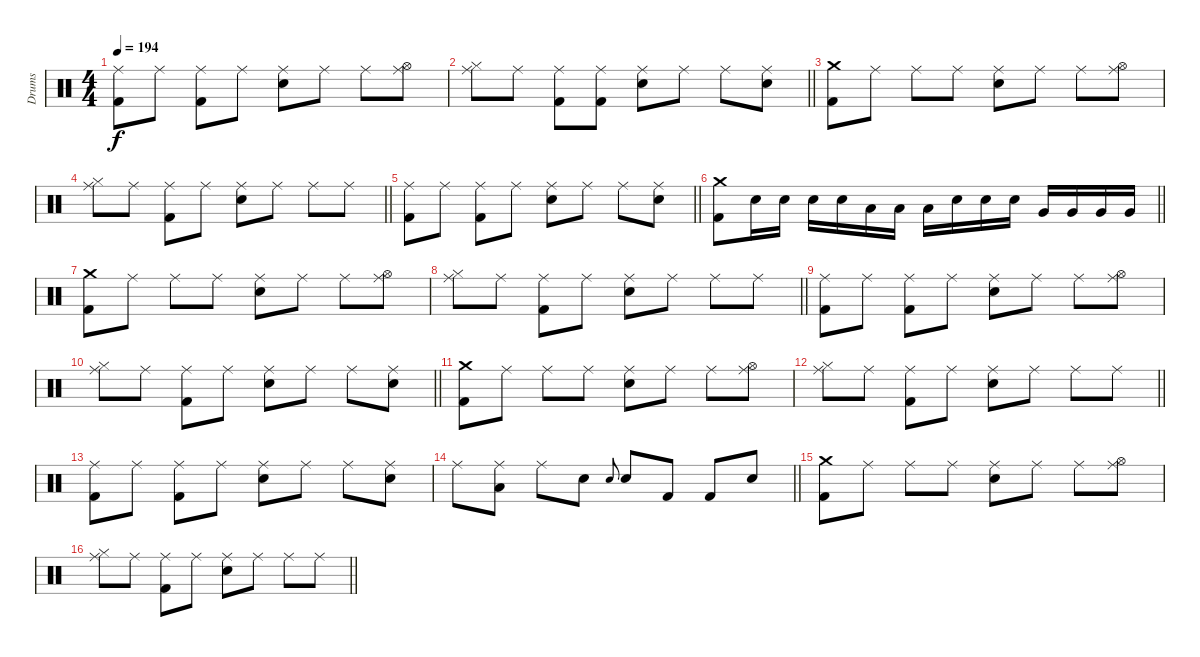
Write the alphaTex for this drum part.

\track ("Drums" "Drums") {instrument percussion}
\staff {score}
\articulation defaults
\ts (4 4)
\tempo 194
\clef neutral
\ks c
("Ride (middle)" "Kick (hit) 2").8{dy f} "Ride (middle)".8 ("Ride (middle)" "Kick (hit) 2").8 "Ride (middle)".8 ("Ride (middle)" "Snare (hit) 2").8 "Ride (middle)".8 "Ride (middle)".8 ("Ride (middle)" "Hi-Hat (open)").8 |
\barLineRight lightlight
("Ride (middle)" "Hi-Hat (closed)").8 "Ride (middle)".8 ("Ride (middle)" "Kick (hit) 2").8 ("Ride (middle)" "Kick (hit) 2").8 ("Ride (middle)" "Snare (hit) 2").8 "Ride (middle)".8 "Ride (middle)".8 ("Ride (middle)" "Snare (hit) 2").8 |
("Crash medium (hit)" "Kick (hit) 2").8 "Ride (middle)".8 "Ride (middle)".8 "Ride (middle)".8 ("Ride (middle)" "Snare (hit) 2").8 "Ride (middle)".8 "Ride (middle)".8 ("Ride (middle)" "Hi-Hat (open)").8 |
\barLineRight lightlight
("Ride (middle)" "Hi-Hat (closed)").8 "Ride (middle)".8 ("Ride (middle)" "Kick (hit) 2").8 "Ride (middle)".8 ("Ride (middle)" "Snare (hit) 2").8 "Ride (middle)".8 "Ride (middle)".8 "Ride (middle)".8 |
\barLineRight lightlight
("Ride (middle)" "Kick (hit) 2").8 "Ride (middle)".8 ("Ride (middle)" "Kick (hit) 2").8 "Ride (middle)".8 ("Ride (middle)" "Snare (hit) 2").8 "Ride (middle)".8 "Ride (middle)".8 ("Ride (middle)" "Snare (hit) 2").8 |
\barLineRight lightlight
("Crash medium (hit)" "Kick (hit) 2").8 "Snare (hit) 2".16 "Snare (hit) 2".16 "Snare (hit) 2".16 "Snare (hit) 2".16 "Low Tom (hit)".16 "Low Tom (hit)".16 "Low Tom (hit)".16 "Snare (hit) 2".16 "Snare (hit) 2".16 "Snare (hit) 2".16 "Very Low Tom (hit)".16 "Very Low Tom (hit)".16 "Very Low Tom (hit)".16 "Very Low Tom (hit)".16 |
("Crash medium (hit)" "Kick (hit) 2").8 "Ride (middle)".8 "Ride (middle)".8 "Ride (middle)".8 ("Ride (middle)" "Snare (hit) 2").8 "Ride (middle)".8 "Ride (middle)".8 ("Ride (middle)" "Hi-Hat (open)").8 |
\barLineRight lightlight
("Ride (middle)" "Hi-Hat (closed)").8 "Ride (middle)".8 ("Ride (middle)" "Kick (hit) 2").8 "Ride (middle)".8 ("Ride (middle)" "Snare (hit) 2").8 "Ride (middle)".8 "Ride (middle)".8 "Ride (middle)".8 |
("Ride (middle)" "Kick (hit) 2").8 "Ride (middle)".8 ("Ride (middle)" "Kick (hit) 2").8 "Ride (middle)".8 ("Ride (middle)" "Snare (hit) 2").8 "Ride (middle)".8 "Ride (middle)".8 ("Ride (middle)" "Hi-Hat (open)").8 |
\barLineRight lightlight
("Ride (middle)" "Hi-Hat (closed)").8 "Ride (middle)".8 ("Ride (middle)" "Kick (hit) 2").8 "Ride (middle)".8 ("Ride (middle)" "Snare (hit) 2").8 "Ride (middle)".8 "Ride (middle)".8 ("Ride (middle)" "Snare (hit) 2").8 |
("Crash medium (hit)" "Kick (hit) 2").8 "Ride (middle)".8 "Ride (middle)".8 "Ride (middle)".8 ("Ride (middle)" "Snare (hit) 2").8 "Ride (middle)".8 "Ride (middle)".8 ("Ride (middle)" "Hi-Hat (open)").8 |
\barLineRight lightlight
("Ride (middle)" "Hi-Hat (closed)").8 "Ride (middle)".8 ("Ride (middle)" "Kick (hit) 2").8 "Ride (middle)".8 ("Ride (middle)" "Snare (hit) 2").8 "Ride (middle)".8 "Ride (middle)".8 "Ride (middle)".8 |
("Ride (middle)" "Kick (hit) 2").8 "Ride (middle)".8 ("Ride (middle)" "Kick (hit) 2").8 "Ride (middle)".8 ("Ride (middle)" "Snare (hit) 2").8 "Ride (middle)".8 "Ride (middle)".8 ("Ride (middle)" "Snare (hit) 2").8 |
\barLineRight lightlight "Ride (middle)".8
("Ride (middle)" "Low Tom (hit)").8 "Ride (middle)".8 "Snare (hit) 2".8 "Snare (hit) 2".8{gr onbeat} "Snare (hit) 2".8 "Kick (hit) 2".8 "Kick (hit) 2".8 "Snare (hit) 2".8 |
("Crash medium (hit)" "Kick (hit) 2").8 "Ride (middle)".8 "Ride (middle)".8 "Ride (middle)".8 ("Ride (middle)" "Snare (hit) 2").8 "Ride (middle)".8 "Ride (middle)".8 ("Ride (middle)" "Hi-Hat (open)").8 |
\barLineRight lightlight
("Ride (middle)" "Hi-Hat (closed)").8 "Ride (middle)".8 ("Ride (middle)" "Kick (hit) 2").8 "Ride (middle)".8 ("Ride (middle)" "Snare (hit) 2").8 "Ride (middle)".8 "Ride (middle)".8 "Ride (middle)".8
